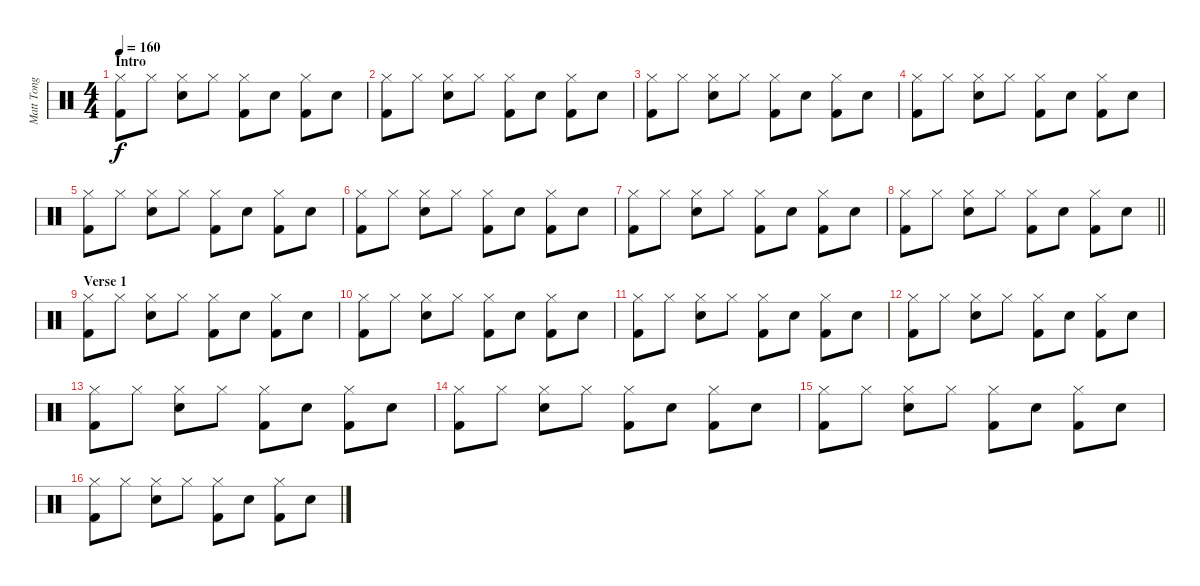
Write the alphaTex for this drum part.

\track ("Matt Tong" "Matt Tong") {instrument percussion}
\staff {score}
\articulation defaults
\ts (4 4)
\section ("" "Intro")
\tempo 160
\clef neutral
\ks c
("Hi-Hat (closed)" "Kick (hit) 2").8{dy f} "Hi-Hat (closed)".8 ("Hi-Hat (closed)" "Electric Snare (hit)").8 "Hi-Hat (closed)".8 ("Hi-Hat (closed)" "Kick (hit) 2").8 "Electric Snare (hit)".8 ("Hi-Hat (closed)" "Kick (hit) 2").8 "Electric Snare (hit)".8 |
("Hi-Hat (closed)" "Kick (hit) 2").8 "Hi-Hat (closed)".8 ("Hi-Hat (closed)" "Electric Snare (hit)").8 "Hi-Hat (closed)".8 ("Hi-Hat (closed)" "Kick (hit) 2").8 "Electric Snare (hit)".8 ("Hi-Hat (closed)" "Kick (hit) 2").8 "Electric Snare (hit)".8 |
("Hi-Hat (closed)" "Kick (hit) 2").8 "Hi-Hat (closed)".8 ("Hi-Hat (closed)" "Electric Snare (hit)").8 "Hi-Hat (closed)".8 ("Hi-Hat (closed)" "Kick (hit) 2").8 "Electric Snare (hit)".8 ("Hi-Hat (closed)" "Kick (hit) 2").8 "Electric Snare (hit)".8 |
("Hi-Hat (closed)" "Kick (hit) 2").8 "Hi-Hat (closed)".8 ("Hi-Hat (closed)" "Electric Snare (hit)").8 "Hi-Hat (closed)".8 ("Hi-Hat (closed)" "Kick (hit) 2").8 "Electric Snare (hit)".8 ("Hi-Hat (closed)" "Kick (hit) 2").8 "Electric Snare (hit)".8 |
("Hi-Hat (closed)" "Kick (hit) 2").8 "Hi-Hat (closed)".8 ("Hi-Hat (closed)" "Electric Snare (hit)").8 "Hi-Hat (closed)".8 ("Hi-Hat (closed)" "Kick (hit) 2").8 "Electric Snare (hit)".8 ("Hi-Hat (closed)" "Kick (hit) 2").8 "Electric Snare (hit)".8 |
("Hi-Hat (closed)" "Kick (hit) 2").8 "Hi-Hat (closed)".8 ("Hi-Hat (closed)" "Electric Snare (hit)").8 "Hi-Hat (closed)".8 ("Hi-Hat (closed)" "Kick (hit) 2").8 "Electric Snare (hit)".8 ("Hi-Hat (closed)" "Kick (hit) 2").8 "Electric Snare (hit)".8 |
("Hi-Hat (closed)" "Kick (hit) 2").8 "Hi-Hat (closed)".8 ("Hi-Hat (closed)" "Electric Snare (hit)").8 "Hi-Hat (closed)".8 ("Hi-Hat (closed)" "Kick (hit) 2").8 "Electric Snare (hit)".8 ("Hi-Hat (closed)" "Kick (hit) 2").8 "Electric Snare (hit)".8 |
\barLineRight lightlight
("Hi-Hat (closed)" "Kick (hit) 2").8 "Hi-Hat (closed)".8 ("Hi-Hat (closed)" "Electric Snare (hit)").8 "Hi-Hat (closed)".8 ("Hi-Hat (closed)" "Kick (hit) 2").8 "Electric Snare (hit)".8 ("Hi-Hat (closed)" "Kick (hit) 2").8 "Electric Snare (hit)".8 |
\section ("" "Verse 1")
("Hi-Hat (closed)" "Kick (hit) 2").8 "Hi-Hat (closed)".8 ("Hi-Hat (closed)" "Electric Snare (hit)").8 "Hi-Hat (closed)".8 ("Hi-Hat (closed)" "Kick (hit) 2").8 "Electric Snare (hit)".8 ("Hi-Hat (closed)" "Kick (hit) 2").8 "Electric Snare (hit)".8 |
("Hi-Hat (closed)" "Kick (hit) 2").8 "Hi-Hat (closed)".8 ("Hi-Hat (closed)" "Electric Snare (hit)").8 "Hi-Hat (closed)".8 ("Hi-Hat (closed)" "Kick (hit) 2").8 "Electric Snare (hit)".8 ("Hi-Hat (closed)" "Kick (hit) 2").8 "Electric Snare (hit)".8 |
("Hi-Hat (closed)" "Kick (hit) 2").8 "Hi-Hat (closed)".8 ("Hi-Hat (closed)" "Electric Snare (hit)").8 "Hi-Hat (closed)".8 ("Hi-Hat (closed)" "Kick (hit) 2").8 "Electric Snare (hit)".8 ("Hi-Hat (closed)" "Kick (hit) 2").8 "Electric Snare (hit)".8 |
("Hi-Hat (closed)" "Kick (hit) 2").8 "Hi-Hat (closed)".8 ("Hi-Hat (closed)" "Electric Snare (hit)").8 "Hi-Hat (closed)".8 ("Hi-Hat (closed)" "Kick (hit) 2").8 "Electric Snare (hit)".8 ("Hi-Hat (closed)" "Kick (hit) 2").8 "Electric Snare (hit)".8 |
("Hi-Hat (closed)" "Kick (hit) 2").8 "Hi-Hat (closed)".8 ("Hi-Hat (closed)" "Electric Snare (hit)").8 "Hi-Hat (closed)".8 ("Hi-Hat (closed)" "Kick (hit) 2").8 "Electric Snare (hit)".8 ("Hi-Hat (closed)" "Kick (hit) 2").8 "Electric Snare (hit)".8 |
("Hi-Hat (closed)" "Kick (hit) 2").8 "Hi-Hat (closed)".8 ("Hi-Hat (closed)" "Electric Snare (hit)").8 "Hi-Hat (closed)".8 ("Hi-Hat (closed)" "Kick (hit) 2").8 "Electric Snare (hit)".8 ("Hi-Hat (closed)" "Kick (hit) 2").8 "Electric Snare (hit)".8 |
("Hi-Hat (closed)" "Kick (hit) 2").8 "Hi-Hat (closed)".8 ("Hi-Hat (closed)" "Electric Snare (hit)").8 "Hi-Hat (closed)".8 ("Hi-Hat (closed)" "Kick (hit) 2").8 "Electric Snare (hit)".8 ("Hi-Hat (closed)" "Kick (hit) 2").8 "Electric Snare (hit)".8 |
("Hi-Hat (closed)" "Kick (hit) 2").8 "Hi-Hat (closed)".8 ("Hi-Hat (closed)" "Electric Snare (hit)").8 "Hi-Hat (closed)".8 ("Hi-Hat (closed)" "Kick (hit) 2").8 "Electric Snare (hit)".8 ("Hi-Hat (closed)" "Kick (hit) 2").8 "Electric Snare (hit)".8
